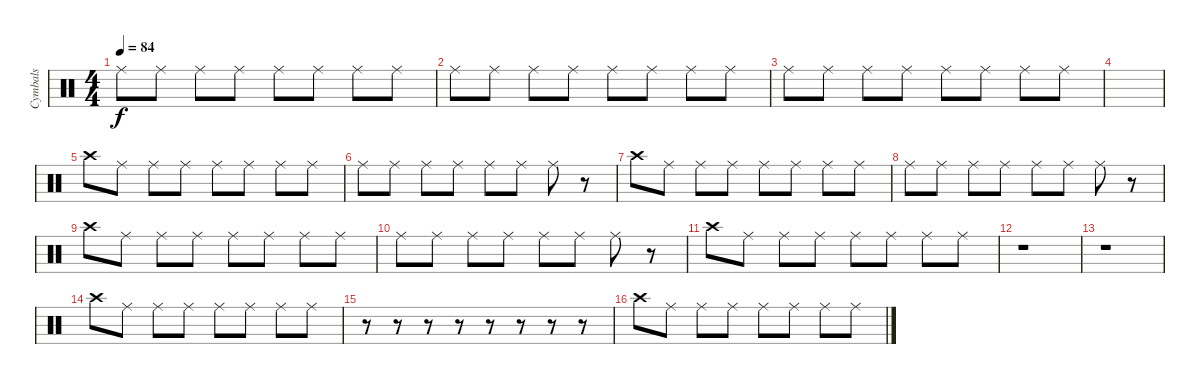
\track ("Cymbals" "Cymbals") {instrument percussion}
\staff {score}
\articulation defaults
\ts (4 4)
\tempo 84
\clef neutral
\ks c "Ride (middle)".8{dy f} "Ride (middle)".8 "Ride (middle)".8 "Ride (middle)".8 "Ride (middle)".8 "Ride (middle)".8 "Ride (middle)".8 "Ride (middle)".8
|
"Ride (middle)".8 "Ride (middle)".8 "Ride (middle)".8 "Ride (middle)".8 "Ride (middle)".8 "Ride (middle)".8 "Ride (middle)".8 "Ride (middle)".8 |
"Ride (middle)".8 "Ride (middle)".8 "Ride (middle)".8 "Ride (middle)".8 "Ride (middle)".8 "Ride (middle)".8 "Ride (middle)".8 "Ride (middle)".8 |
|
"Crash high (hit)".8 "Ride (middle)".8 "Ride (middle)".8 "Ride (middle)".8 "Ride (middle)".8 "Ride (middle)".8 "Ride (middle)".8 "Ride (middle)".8 |
"Ride (middle)".8 "Ride (middle)".8 "Ride (middle)".8 "Ride (middle)".8 "Ride (middle)".8 "Ride (middle)".8 "Ride (middle)".8 r.8 |
"Crash high (hit)".8 "Ride (middle)".8 "Ride (middle)".8 "Ride (middle)".8 "Ride (middle)".8 "Ride (middle)".8 "Ride (middle)".8 "Ride (middle)".8 |
"Ride (middle)".8 "Ride (middle)".8 "Ride (middle)".8 "Ride (middle)".8 "Ride (middle)".8 "Ride (middle)".8 "Ride (middle)".8 r.8 |
"Crash high (hit)".8 "Ride (middle)".8 "Ride (middle)".8 "Ride (middle)".8 "Ride (middle)".8 "Ride (middle)".8 "Ride (middle)".8 "Ride (middle)".8 |
"Ride (middle)".8 "Ride (middle)".8 "Ride (middle)".8 "Ride (middle)".8 "Ride (middle)".8 "Ride (middle)".8 "Ride (middle)".8 r.8 |
"Crash high (hit)".8 "Ride (middle)".8 "Ride (middle)".8 "Ride (middle)".8 "Ride (middle)".8 "Ride (middle)".8 "Ride (middle)".8 "Ride (middle)".8 |
r.1 |
r.1 |
"Crash high (hit)".8 "Ride (middle)".8 "Ride (middle)".8 "Ride (middle)".8 "Ride (middle)".8 "Ride (middle)".8 "Ride (middle)".8 "Ride (middle)".8 |
r.8 r.8 r.8 r.8 r.8 r.8 r.8 r.8 |
"Crash high (hit)".8 "Ride (middle)".8 "Ride (middle)".8 "Ride (middle)".8 "Ride (middle)".8 "Ride (middle)".8 "Ride (middle)".8 "Ride (middle)".8
